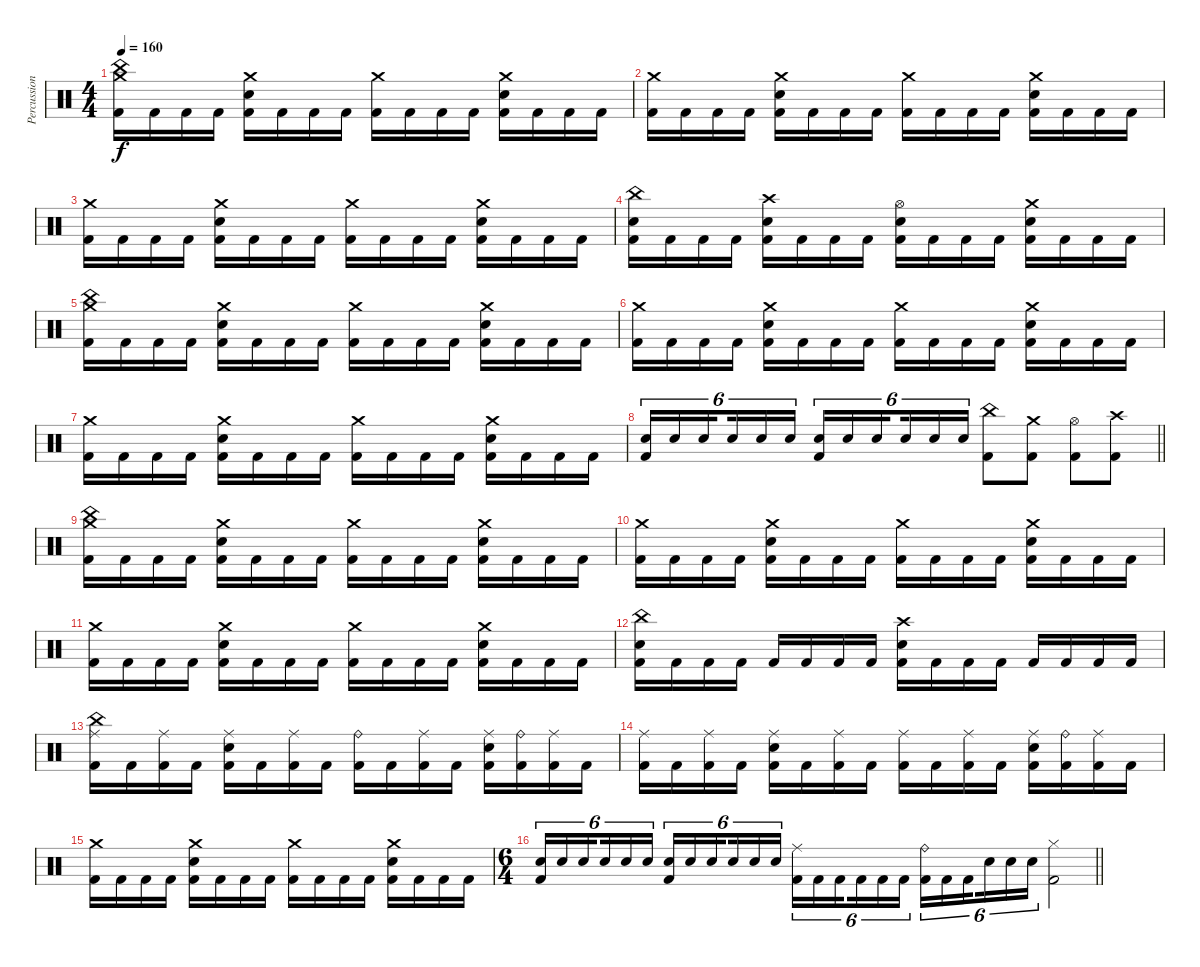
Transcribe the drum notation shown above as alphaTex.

\track ("Percussions" "Percussion") {instrument percussion}
\staff {score}
\articulation defaults
\ts (4 4)
\tempo 160
\clef neutral
\ks c
("Crash medium (hit)" "China (hit)" "Kick (hit) 2").16{dy f} "Kick (hit) 2".16 "Kick (hit) 2".16 "Kick (hit) 2".16 ("Crash medium (hit)" "Electric Snare (hit)" "Kick (hit) 2").16 "Kick (hit) 2".16 "Kick (hit) 2".16 "Kick (hit) 2".16 ("Crash medium (hit)" "Kick (hit) 2").16 "Kick (hit) 2".16 "Kick (hit) 2".16 "Kick (hit) 2".16 ("Crash medium (hit)" "Electric Snare (hit)" "Kick (hit) 2").16 "Kick (hit) 2".16 "Kick (hit) 2".16 "Kick (hit) 2".16 |
("Crash medium (hit)" "Kick (hit) 2").16 "Kick (hit) 2".16 "Kick (hit) 2".16 "Kick (hit) 2".16 ("Crash medium (hit)" "Electric Snare (hit)" "Kick (hit) 2").16 "Kick (hit) 2".16 "Kick (hit) 2".16 "Kick (hit) 2".16 ("Crash medium (hit)" "Kick (hit) 2").16 "Kick (hit) 2".16 "Kick (hit) 2".16 "Kick (hit) 2".16 ("Crash medium (hit)" "Electric Snare (hit)" "Kick (hit) 2").16 "Kick (hit) 2".16 "Kick (hit) 2".16 "Kick (hit) 2".16 |
("Crash medium (hit)" "Kick (hit) 2").16 "Kick (hit) 2".16 "Kick (hit) 2".16 "Kick (hit) 2".16 ("Crash medium (hit)" "Electric Snare (hit)" "Kick (hit) 2").16 "Kick (hit) 2".16 "Kick (hit) 2".16 "Kick (hit) 2".16 ("Crash medium (hit)" "Kick (hit) 2").16 "Kick (hit) 2".16 "Kick (hit) 2".16 "Kick (hit) 2".16 ("Crash medium (hit)" "Electric Snare (hit)" "Kick (hit) 2").16 "Kick (hit) 2".16 "Kick (hit) 2".16 "Kick (hit) 2".16 |
("China (hit)" "Electric Snare (hit)" "Kick (hit) 2").16 "Kick (hit) 2".16 "Kick (hit) 2".16 "Kick (hit) 2".16 ("Crash high (hit)" "Electric Snare (hit)" "Kick (hit) 2").16 "Kick (hit) 2".16 "Kick (hit) 2".16 "Kick (hit) 2".16 ("Hi-Hat (open)" "Electric Snare (hit)" "Kick (hit) 2").16 "Kick (hit) 2".16 "Kick (hit) 2".16 "Kick (hit) 2".16 ("Crash medium (hit)" "Electric Snare (hit)" "Kick (hit) 2").16 "Kick (hit) 2".16 "Kick (hit) 2".16 "Kick (hit) 2".16 |
("Crash medium (hit)" "China (hit)" "Kick (hit) 2").16 "Kick (hit) 2".16 "Kick (hit) 2".16 "Kick (hit) 2".16 ("Crash medium (hit)" "Electric Snare (hit)" "Kick (hit) 2").16 "Kick (hit) 2".16 "Kick (hit) 2".16 "Kick (hit) 2".16 ("Crash medium (hit)" "Kick (hit) 2").16 "Kick (hit) 2".16 "Kick (hit) 2".16 "Kick (hit) 2".16 ("Crash medium (hit)" "Electric Snare (hit)" "Kick (hit) 2").16 "Kick (hit) 2".16 "Kick (hit) 2".16 "Kick (hit) 2".16 |
("Crash medium (hit)" "Kick (hit) 2").16 "Kick (hit) 2".16 "Kick (hit) 2".16 "Kick (hit) 2".16 ("Crash medium (hit)" "Electric Snare (hit)" "Kick (hit) 2").16 "Kick (hit) 2".16 "Kick (hit) 2".16 "Kick (hit) 2".16 ("Crash medium (hit)" "Kick (hit) 2").16 "Kick (hit) 2".16 "Kick (hit) 2".16 "Kick (hit) 2".16 ("Crash medium (hit)" "Electric Snare (hit)" "Kick (hit) 2").16 "Kick (hit) 2".16 "Kick (hit) 2".16 "Kick (hit) 2".16 |
("Crash medium (hit)" "Kick (hit) 2").16 "Kick (hit) 2".16 "Kick (hit) 2".16 "Kick (hit) 2".16 ("Crash medium (hit)" "Electric Snare (hit)" "Kick (hit) 2").16 "Kick (hit) 2".16 "Kick (hit) 2".16 "Kick (hit) 2".16 ("Crash medium (hit)" "Kick (hit) 2").16 "Kick (hit) 2".16 "Kick (hit) 2".16 "Kick (hit) 2".16 ("Crash medium (hit)" "Electric Snare (hit)" "Kick (hit) 2").16 "Kick (hit) 2".16 "Kick (hit) 2".16 "Kick (hit) 2".16 |
\barLineRight lightlight
("Electric Snare (hit)" "Kick (hit) 2").16{tu (6 4)} "Electric Snare (hit)".16{tu (6 4)} "Electric Snare (hit)".16{tu (6 4) beam splitsecondary} "Electric Snare (hit)".16{tu (6 4)} "Electric Snare (hit)".16{tu (6 4)} "Electric Snare (hit)".16{tu (6 4)} ("Electric Snare (hit)" "Kick (hit) 2").16{tu (6 4)} "Electric Snare (hit)".16{tu (6 4)} "Electric Snare (hit)".16{tu (6 4) beam splitsecondary} "Electric Snare (hit)".16{tu (6 4)} "Electric Snare (hit)".16{tu (6 4)} "Electric Snare (hit)".16{tu (6 4)} ("China (hit)" "Kick (hit) 2").8 ("Crash medium (hit)" "Kick (hit) 2").8 ("Hi-Hat (open)" "Kick (hit) 2").8 ("Crash high (hit)" "Kick (hit) 2").8 |
("Crash medium (hit)" "China (hit)" "Kick (hit) 2").16 "Kick (hit) 2".16 "Kick (hit) 2".16 "Kick (hit) 2".16 ("Crash medium (hit)" "Electric Snare (hit)" "Kick (hit) 2").16 "Kick (hit) 2".16 "Kick (hit) 2".16 "Kick (hit) 2".16 ("Crash medium (hit)" "Kick (hit) 2").16 "Kick (hit) 2".16 "Kick (hit) 2".16 "Kick (hit) 2".16 ("Crash medium (hit)" "Electric Snare (hit)" "Kick (hit) 2").16 "Kick (hit) 2".16 "Kick (hit) 2".16 "Kick (hit) 2".16 |
("Crash medium (hit)" "Kick (hit) 2").16 "Kick (hit) 2".16 "Kick (hit) 2".16 "Kick (hit) 2".16 ("Crash medium (hit)" "Electric Snare (hit)" "Kick (hit) 2").16 "Kick (hit) 2".16 "Kick (hit) 2".16 "Kick (hit) 2".16 ("Crash medium (hit)" "Kick (hit) 2").16 "Kick (hit) 2".16 "Kick (hit) 2".16 "Kick (hit) 2".16 ("Crash medium (hit)" "Electric Snare (hit)" "Kick (hit) 2").16 "Kick (hit) 2".16 "Kick (hit) 2".16 "Kick (hit) 2".16 |
("Crash medium (hit)" "Kick (hit) 2").16 "Kick (hit) 2".16 "Kick (hit) 2".16 "Kick (hit) 2".16 ("Crash medium (hit)" "Electric Snare (hit)" "Kick (hit) 2").16 "Kick (hit) 2".16 "Kick (hit) 2".16 "Kick (hit) 2".16 ("Crash medium (hit)" "Kick (hit) 2").16 "Kick (hit) 2".16 "Kick (hit) 2".16 "Kick (hit) 2".16 ("Crash medium (hit)" "Electric Snare (hit)" "Kick (hit) 2").16 "Kick (hit) 2".16 "Kick (hit) 2".16 "Kick (hit) 2".16 |
("China (hit)" "Electric Snare (hit)" "Kick (hit) 2").16 "Kick (hit) 2".16 "Kick (hit) 2".16 "Kick (hit) 2".16 "Kick (hit) 2".16 "Kick (hit) 2".16 "Kick (hit) 2".16 "Kick (hit) 2".16 ("Crash high (hit)" "Electric Snare (hit)" "Kick (hit) 2").16 "Kick (hit) 2".16 "Kick (hit) 2".16 "Kick (hit) 2".16 "Kick (hit) 2".16 "Kick (hit) 2".16 "Kick (hit) 2".16 "Kick (hit) 2".16 |
("Ride (middle)" "China (hit)" "Kick (hit) 2").16 "Kick (hit) 2".16 ("Ride (middle)" "Kick (hit) 2").16 "Kick (hit) 2".16 ("Ride (middle)" "Electric Snare (hit)" "Kick (hit) 2").16 "Kick (hit) 2".16 ("Ride (middle)" "Kick (hit) 2").16 "Kick (hit) 2".16 ("Ride (bell)" "Kick (hit) 2").16 "Kick (hit) 2".16 ("Ride (middle)" "Kick (hit) 2").16 "Kick (hit) 2".16 ("Ride (middle)" "Electric Snare (hit)" "Kick (hit) 2").16 ("Ride (bell)" "Kick (hit) 2").16 ("Ride (middle)" "Kick (hit) 2").16 "Kick (hit) 2".16 |
("Ride (middle)" "Kick (hit) 2").16 "Kick (hit) 2".16 ("Ride (middle)" "Kick (hit) 2").16 "Kick (hit) 2".16 ("Ride (middle)" "Electric Snare (hit)" "Kick (hit) 2").16 "Kick (hit) 2".16 ("Ride (middle)" "Kick (hit) 2").16 "Kick (hit) 2".16 ("Ride (middle)" "Kick (hit) 2").16 "Kick (hit) 2".16 ("Ride (middle)" "Kick (hit) 2").16 "Kick (hit) 2".16 ("Ride (middle)" "Electric Snare (hit)" "Kick (hit) 2").16 ("Ride (bell)" "Kick (hit) 2").16 ("Ride (middle)" "Kick (hit) 2").16 "Kick (hit) 2".16 |
("Crash medium (hit)" "Kick (hit) 2").16 "Kick (hit) 2".16 "Kick (hit) 2".16 "Kick (hit) 2".16 ("Crash medium (hit)" "Electric Snare (hit)" "Kick (hit) 2").16 "Kick (hit) 2".16 "Kick (hit) 2".16 "Kick (hit) 2".16 ("Crash medium (hit)" "Kick (hit) 2").16 "Kick (hit) 2".16 "Kick (hit) 2".16 "Kick (hit) 2".16 ("Crash medium (hit)" "Electric Snare (hit)" "Kick (hit) 2").16 "Kick (hit) 2".16 "Kick (hit) 2".16 "Kick (hit) 2".16 |
\ts (6 4)
\barLineRight lightlight
("Electric Snare (hit)" "Kick (hit) 2").16{tu (6 4)} "Electric Snare (hit)".16{tu (6 4)} "Electric Snare (hit)".16{tu (6 4) beam splitsecondary} "Electric Snare (hit)".16{tu (6 4)} "Electric Snare (hit)".16{tu (6 4)} "Electric Snare (hit)".16{tu (6 4) beam splitsecondary} ("Electric Snare (hit)" "Kick (hit) 2").16{tu (6 4)} "Electric Snare (hit)".16{tu (6 4)} "Electric Snare (hit)".16{tu (6 4) beam splitsecondary} "Electric Snare (hit)".16{tu (6 4)} "Electric Snare (hit)".16{tu (6 4)} "Electric Snare (hit)".16{tu (6 4) beam splitsecondary} ("Ride (middle)" "Kick (hit) 2").16{tu (6 4)} "Kick (hit) 2".16{tu (6 4)} "Kick (hit) 2".16{tu (6 4) beam splitsecondary} "Kick (hit) 2".16{tu (6 4)} "Kick (hit) 2".16{tu (6 4)} "Kick (hit) 2".16{tu (6 4)} ("Ride (bell)" "Kick (hit) 2").16{tu (6 4)} "Kick (hit) 2".16{tu (6 4)} "Kick (hit) 2".16{tu (6 4) beam splitsecondary} "Electric Snare (hit)".16{tu (6 4)} "Electric Snare (hit)".16{tu (6 4)} "Electric Snare (hit)".16{tu (6 4)} ("Hi-Hat (closed)" "Kick (hit) 2").2
